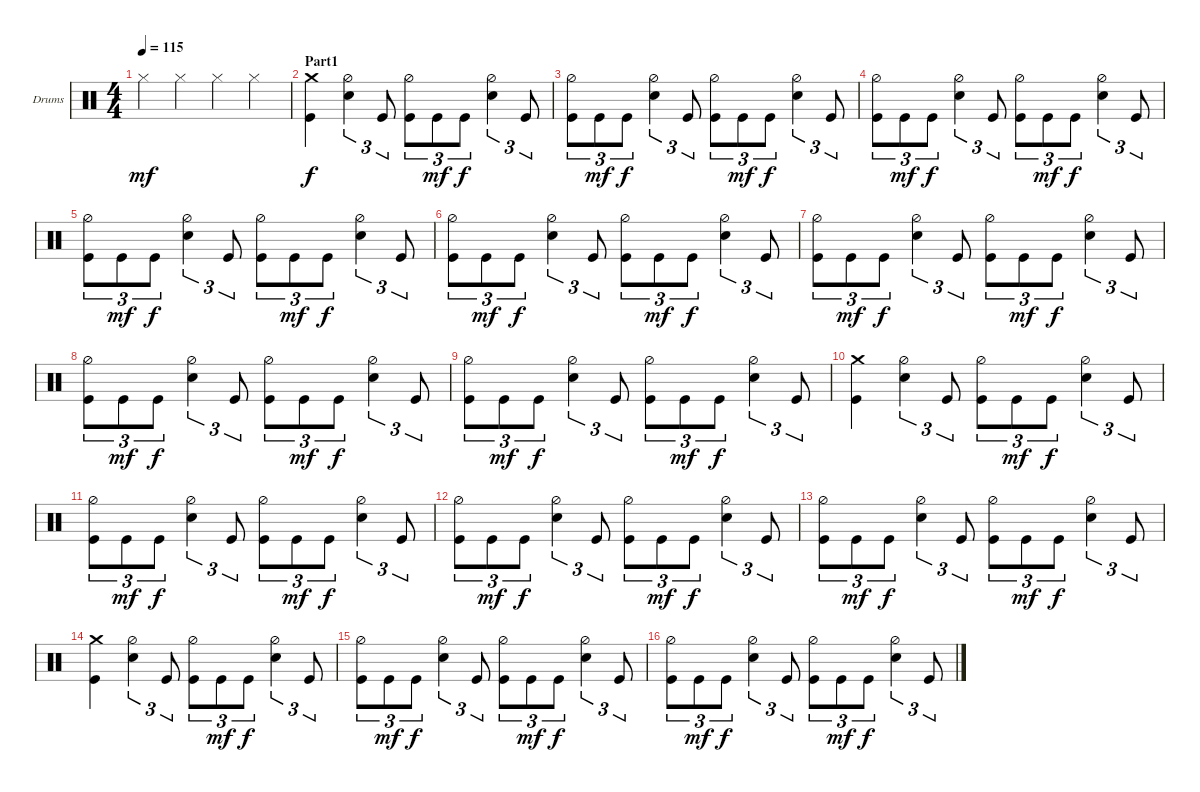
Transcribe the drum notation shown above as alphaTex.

\defaultSystemsLayout 4
\bracketExtendMode groupsimilarinstruments
\firstSystemTrackNameOrientation horizontal
\otherSystemsTrackNameOrientation horizontal
\track ("Drumkit" "Drums") {instrument percussion}
\staff {score}
\articulation defaults
\ts (4 4)
\tempo 115
\clef neutral
\ks c "Hi-Hat (closed)".4{dy mf} "Hi-Hat (closed)".4 "Hi-Hat (closed)".4 "Hi-Hat (closed)".4
|
\section ("" "Part1")
\ks aminor
("Kick (hit)" "Crash medium (hit)").4{dy f} ("Snare (hit) 2" "Hi-Hat (half)").4{tu (3 2)} "Kick (hit)".8{tu (3 2)} ("Kick (hit)" "Hi-Hat (half)").8{tu (3 2)} "Kick (hit)".8{tu (3 2) dy mf} "Kick (hit)".8{tu (3 2) dy f} ("Snare (hit) 2" "Hi-Hat (half)").4{tu (3 2)} "Kick (hit)".8{tu (3 2)} |
("Kick (hit)" "Hi-Hat (half)").8{tu (3 2)} "Kick (hit)".8{tu (3 2) dy mf} "Kick (hit)".8{tu (3 2) dy f} ("Snare (hit) 2" "Hi-Hat (half)").4{tu (3 2)} "Kick (hit)".8{tu (3 2)} ("Kick (hit)" "Hi-Hat (half)").8{tu (3 2)} "Kick (hit)".8{tu (3 2) dy mf} "Kick (hit)".8{tu (3 2) dy f} ("Snare (hit) 2" "Hi-Hat (half)").4{tu (3 2)} "Kick (hit)".8{tu (3 2)} |
("Kick (hit)" "Hi-Hat (half)").8{tu (3 2)} "Kick (hit)".8{tu (3 2) dy mf} "Kick (hit)".8{tu (3 2) dy f} ("Snare (hit) 2" "Hi-Hat (half)").4{tu (3 2)} "Kick (hit)".8{tu (3 2)} ("Kick (hit)" "Hi-Hat (half)").8{tu (3 2)} "Kick (hit)".8{tu (3 2) dy mf} "Kick (hit)".8{tu (3 2) dy f} ("Snare (hit) 2" "Hi-Hat (half)").4{tu (3 2)} "Kick (hit)".8{tu (3 2)} |
("Kick (hit)" "Hi-Hat (half)").8{tu (3 2)} "Kick (hit)".8{tu (3 2) dy mf} "Kick (hit)".8{tu (3 2) dy f} ("Snare (hit) 2" "Hi-Hat (half)").4{tu (3 2)} "Kick (hit)".8{tu (3 2)} ("Kick (hit)" "Hi-Hat (half)").8{tu (3 2)} "Kick (hit)".8{tu (3 2) dy mf} "Kick (hit)".8{tu (3 2) dy f} ("Snare (hit) 2" "Hi-Hat (half)").4{tu (3 2)} "Kick (hit)".8{tu (3 2)} |
("Kick (hit)" "Hi-Hat (half)").8{tu (3 2)} "Kick (hit)".8{tu (3 2) dy mf} "Kick (hit)".8{tu (3 2) dy f} ("Snare (hit) 2" "Hi-Hat (half)").4{tu (3 2)} "Kick (hit)".8{tu (3 2)} ("Kick (hit)" "Hi-Hat (half)").8{tu (3 2)} "Kick (hit)".8{tu (3 2) dy mf} "Kick (hit)".8{tu (3 2) dy f} ("Snare (hit) 2" "Hi-Hat (half)").4{tu (3 2)} "Kick (hit)".8{tu (3 2)} |
("Kick (hit)" "Hi-Hat (half)").8{tu (3 2)} "Kick (hit)".8{tu (3 2) dy mf} "Kick (hit)".8{tu (3 2) dy f} ("Snare (hit) 2" "Hi-Hat (half)").4{tu (3 2)} "Kick (hit)".8{tu (3 2)} ("Kick (hit)" "Hi-Hat (half)").8{tu (3 2)} "Kick (hit)".8{tu (3 2) dy mf} "Kick (hit)".8{tu (3 2) dy f} ("Snare (hit) 2" "Hi-Hat (half)").4{tu (3 2)} "Kick (hit)".8{tu (3 2)} |
("Kick (hit)" "Hi-Hat (half)").8{tu (3 2)} "Kick (hit)".8{tu (3 2) dy mf} "Kick (hit)".8{tu (3 2) dy f} ("Snare (hit) 2" "Hi-Hat (half)").4{tu (3 2)} "Kick (hit)".8{tu (3 2)} ("Kick (hit)" "Hi-Hat (half)").8{tu (3 2)} "Kick (hit)".8{tu (3 2) dy mf} "Kick (hit)".8{tu (3 2) dy f} ("Snare (hit) 2" "Hi-Hat (half)").4{tu (3 2)} "Kick (hit)".8{tu (3 2)} |
("Kick (hit)" "Hi-Hat (half)").8{tu (3 2)} "Kick (hit)".8{tu (3 2) dy mf} "Kick (hit)".8{tu (3 2) dy f} ("Snare (hit) 2" "Hi-Hat (half)").4{tu (3 2)} "Kick (hit)".8{tu (3 2)} ("Kick (hit)" "Hi-Hat (half)").8{tu (3 2)} "Kick (hit)".8{tu (3 2) dy mf} "Kick (hit)".8{tu (3 2) dy f} ("Snare (hit) 2" "Hi-Hat (half)").4{tu (3 2)} "Kick (hit)".8{tu (3 2)} |
\section ("" "")
("Kick (hit)" "Crash medium (hit)").4 ("Snare (hit) 2" "Hi-Hat (half)").4{tu (3 2)} "Kick (hit)".8{tu (3 2)} ("Kick (hit)" "Hi-Hat (half)").8{tu (3 2)} "Kick (hit)".8{tu (3 2) dy mf} "Kick (hit)".8{tu (3 2) dy f} ("Snare (hit) 2" "Hi-Hat (half)").4{tu (3 2)} "Kick (hit)".8{tu (3 2)} |
("Kick (hit)" "Hi-Hat (half)").8{tu (3 2)} "Kick (hit)".8{tu (3 2) dy mf} "Kick (hit)".8{tu (3 2) dy f} ("Snare (hit) 2" "Hi-Hat (half)").4{tu (3 2)} "Kick (hit)".8{tu (3 2)} ("Kick (hit)" "Hi-Hat (half)").8{tu (3 2)} "Kick (hit)".8{tu (3 2) dy mf} "Kick (hit)".8{tu (3 2) dy f} ("Snare (hit) 2" "Hi-Hat (half)").4{tu (3 2)} "Kick (hit)".8{tu (3 2)} |
("Kick (hit)" "Hi-Hat (half)").8{tu (3 2)} "Kick (hit)".8{tu (3 2) dy mf} "Kick (hit)".8{tu (3 2) dy f} ("Snare (hit) 2" "Hi-Hat (half)").4{tu (3 2)} "Kick (hit)".8{tu (3 2)} ("Kick (hit)" "Hi-Hat (half)").8{tu (3 2)} "Kick (hit)".8{tu (3 2) dy mf} "Kick (hit)".8{tu (3 2) dy f} ("Snare (hit) 2" "Hi-Hat (half)").4{tu (3 2)} "Kick (hit)".8{tu (3 2)} |
("Kick (hit)" "Hi-Hat (half)").8{tu (3 2)} "Kick (hit)".8{tu (3 2) dy mf} "Kick (hit)".8{tu (3 2) dy f} ("Snare (hit) 2" "Hi-Hat (half)").4{tu (3 2)} "Kick (hit)".8{tu (3 2)} ("Kick (hit)" "Hi-Hat (half)").8{tu (3 2)} "Kick (hit)".8{tu (3 2) dy mf} "Kick (hit)".8{tu (3 2) dy f} ("Snare (hit) 2" "Hi-Hat (half)").4{tu (3 2)} "Kick (hit)".8{tu (3 2)} |
("Kick (hit)" "Crash medium (hit)").4 ("Snare (hit) 2" "Hi-Hat (half)").4{tu (3 2)} "Kick (hit)".8{tu (3 2)} ("Kick (hit)" "Hi-Hat (half)").8{tu (3 2)} "Kick (hit)".8{tu (3 2) dy mf} "Kick (hit)".8{tu (3 2) dy f} ("Snare (hit) 2" "Hi-Hat (half)").4{tu (3 2)} "Kick (hit)".8{tu (3 2)} |
("Kick (hit)" "Hi-Hat (half)").8{tu (3 2)} "Kick (hit)".8{tu (3 2) dy mf} "Kick (hit)".8{tu (3 2) dy f} ("Snare (hit) 2" "Hi-Hat (half)").4{tu (3 2)} "Kick (hit)".8{tu (3 2)} ("Kick (hit)" "Hi-Hat (half)").8{tu (3 2)} "Kick (hit)".8{tu (3 2) dy mf} "Kick (hit)".8{tu (3 2) dy f} ("Snare (hit) 2" "Hi-Hat (half)").4{tu (3 2)} "Kick (hit)".8{tu (3 2)} |
("Kick (hit)" "Hi-Hat (half)").8{tu (3 2)} "Kick (hit)".8{tu (3 2) dy mf} "Kick (hit)".8{tu (3 2) dy f} ("Snare (hit) 2" "Hi-Hat (half)").4{tu (3 2)} "Kick (hit)".8{tu (3 2)} ("Kick (hit)" "Hi-Hat (half)").8{tu (3 2)} "Kick (hit)".8{tu (3 2) dy mf} "Kick (hit)".8{tu (3 2) dy f} ("Snare (hit) 2" "Hi-Hat (half)").4{tu (3 2)} "Kick (hit)".8{tu (3 2)}
